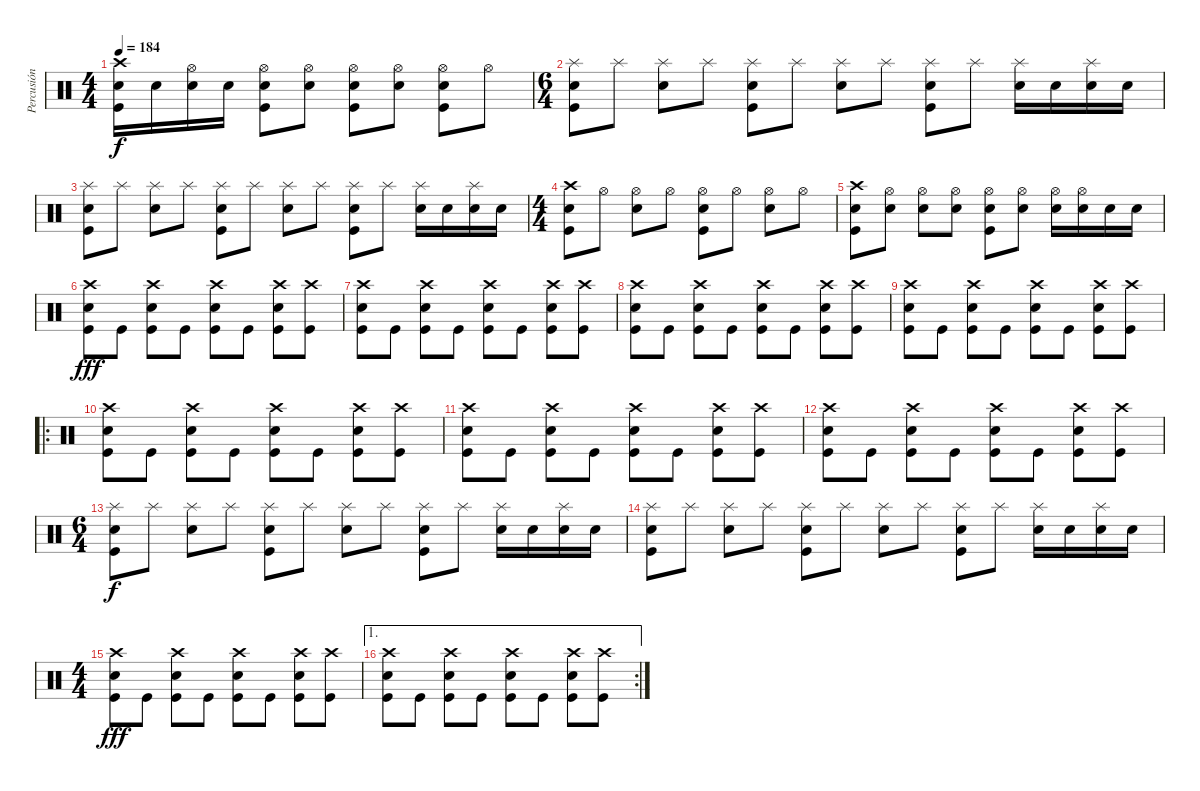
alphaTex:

\track ("Percusión" "Percusión") {instrument percussion}
\staff {score}
\articulation defaults
\ts (4 4)
\tempo 184
\clef neutral
\ks c
("Crash high (hit)" "Electric Snare (hit)" "Kick (hit)").16{dy f} "Electric Snare (hit)".16 ("Hi-Hat (open)" "Electric Snare (hit)").16 "Electric Snare (hit)".16 ("Hi-Hat (open)" "Electric Snare (hit)" "Kick (hit)").8 ("Hi-Hat (open)" "Electric Snare (hit)").8 ("Hi-Hat (open)" "Electric Snare (hit)" "Kick (hit)").8 ("Hi-Hat (open)" "Electric Snare (hit)").8 ("Hi-Hat (open)" "Electric Snare (hit)" "Kick (hit)").8 "Hi-Hat (open)".8 |
\ts (6 4)
("Splash (hit)" "Electric Snare (hit)" "Kick (hit)").8 "Splash (hit)".8 ("Splash (hit)" "Electric Snare (hit)").8 "Splash (hit)".8 ("Splash (hit)" "Electric Snare (hit)" "Kick (hit)").8 "Splash (hit)".8 ("Splash (hit)" "Electric Snare (hit)").8 "Splash (hit)".8 ("Splash (hit)" "Electric Snare (hit)" "Kick (hit)").8 "Splash (hit)".8 ("Splash (hit)" "Electric Snare (hit)").16 "Electric Snare (hit)".16 ("Splash (hit)" "Electric Snare (hit)").16 "Electric Snare (hit)".16 |
("Splash (hit)" "Electric Snare (hit)" "Kick (hit)").8 "Splash (hit)".8 ("Splash (hit)" "Electric Snare (hit)").8 "Splash (hit)".8 ("Splash (hit)" "Electric Snare (hit)" "Kick (hit)").8 "Splash (hit)".8 ("Splash (hit)" "Electric Snare (hit)").8 "Splash (hit)".8 ("Splash (hit)" "Electric Snare (hit)" "Kick (hit)").8 "Splash (hit)".8 ("Splash (hit)" "Electric Snare (hit)").16 "Electric Snare (hit)".16 ("Splash (hit)" "Electric Snare (hit)").16 "Electric Snare (hit)".16 |
\ts (4 4)
("Crash high (hit)" "Electric Snare (hit)" "Kick (hit)").8 "Hi-Hat (open)".8 ("Hi-Hat (open)" "Electric Snare (hit)").8 "Hi-Hat (open)".8 ("Hi-Hat (open)" "Electric Snare (hit)" "Kick (hit)").8 "Hi-Hat (open)".8 ("Hi-Hat (open)" "Electric Snare (hit)").8 "Hi-Hat (open)".8 |
("Crash high (hit)" "Electric Snare (hit)" "Kick (hit)").8 ("Hi-Hat (open)" "Electric Snare (hit)").8 ("Hi-Hat (open)" "Electric Snare (hit)").8 ("Hi-Hat (open)" "Electric Snare (hit)").8 ("Hi-Hat (open)" "Electric Snare (hit)" "Kick (hit)").8 ("Hi-Hat (open)" "Electric Snare (hit)").8 ("Hi-Hat (open)" "Electric Snare (hit)").16 ("Hi-Hat (open)" "Electric Snare (hit)").16 "Electric Snare (hit)".16 "Electric Snare (hit)".16 |
("Crash high (hit)" "Electric Snare (hit)" "Kick (hit)").8{dy fff} "Kick (hit)".8 ("Crash high (hit)" "Electric Snare (hit)" "Kick (hit)").8 "Kick (hit)".8 ("Crash high (hit)" "Electric Snare (hit)" "Kick (hit)").8 "Kick (hit)".8 ("Crash high (hit)" "Electric Snare (hit)" "Kick (hit)").8 ("Crash high (hit)" "Kick (hit)").8 |
("Crash high (hit)" "Electric Snare (hit)" "Kick (hit)").8 "Kick (hit)".8 ("Crash high (hit)" "Electric Snare (hit)" "Kick (hit)").8 "Kick (hit)".8 ("Crash high (hit)" "Electric Snare (hit)" "Kick (hit)").8 "Kick (hit)".8 ("Crash high (hit)" "Electric Snare (hit)" "Kick (hit)").8 ("Crash high (hit)" "Kick (hit)").8 |
("Crash high (hit)" "Electric Snare (hit)" "Kick (hit)").8 "Kick (hit)".8 ("Crash high (hit)" "Electric Snare (hit)" "Kick (hit)").8 "Kick (hit)".8 ("Crash high (hit)" "Electric Snare (hit)" "Kick (hit)").8 "Kick (hit)".8 ("Crash high (hit)" "Electric Snare (hit)" "Kick (hit)").8 ("Crash high (hit)" "Kick (hit)").8 |
("Crash high (hit)" "Electric Snare (hit)" "Kick (hit)").8 "Kick (hit)".8 ("Crash high (hit)" "Electric Snare (hit)" "Kick (hit)").8 "Kick (hit)".8 ("Crash high (hit)" "Electric Snare (hit)" "Kick (hit)").8 "Kick (hit)".8 ("Crash high (hit)" "Electric Snare (hit)" "Kick (hit)").8 ("Crash high (hit)" "Kick (hit)").8 |
\ro
("Crash high (hit)" "Electric Snare (hit)" "Kick (hit)").8 "Kick (hit)".8 ("Crash high (hit)" "Electric Snare (hit)" "Kick (hit)").8 "Kick (hit)".8 ("Crash high (hit)" "Electric Snare (hit)" "Kick (hit)").8 "Kick (hit)".8 ("Crash high (hit)" "Electric Snare (hit)" "Kick (hit)").8 ("Crash high (hit)" "Kick (hit)").8 |
("Crash high (hit)" "Electric Snare (hit)" "Kick (hit)").8 "Kick (hit)".8 ("Crash high (hit)" "Electric Snare (hit)" "Kick (hit)").8 "Kick (hit)".8 ("Crash high (hit)" "Electric Snare (hit)" "Kick (hit)").8 "Kick (hit)".8 ("Crash high (hit)" "Electric Snare (hit)" "Kick (hit)").8 ("Crash high (hit)" "Kick (hit)").8 |
("Crash high (hit)" "Electric Snare (hit)" "Kick (hit)").8 "Kick (hit)".8 ("Crash high (hit)" "Electric Snare (hit)" "Kick (hit)").8 "Kick (hit)".8 ("Crash high (hit)" "Electric Snare (hit)" "Kick (hit)").8 "Kick (hit)".8 ("Crash high (hit)" "Electric Snare (hit)" "Kick (hit)").8 ("Crash high (hit)" "Kick (hit)").8 |
\ts (6 4)
("Splash (hit)" "Electric Snare (hit)" "Kick (hit)").8{dy f} "Splash (hit)".8 ("Splash (hit)" "Electric Snare (hit)").8 "Splash (hit)".8 ("Splash (hit)" "Electric Snare (hit)" "Kick (hit)").8 "Splash (hit)".8 ("Splash (hit)" "Electric Snare (hit)").8 "Splash (hit)".8 ("Splash (hit)" "Electric Snare (hit)" "Kick (hit)").8 "Splash (hit)".8 ("Splash (hit)" "Electric Snare (hit)").16 "Electric Snare (hit)".16 ("Splash (hit)" "Electric Snare (hit)").16 "Electric Snare (hit)".16 |
("Splash (hit)" "Electric Snare (hit)" "Kick (hit)").8 "Splash (hit)".8 ("Splash (hit)" "Electric Snare (hit)").8 "Splash (hit)".8 ("Splash (hit)" "Electric Snare (hit)" "Kick (hit)").8 "Splash (hit)".8 ("Splash (hit)" "Electric Snare (hit)").8 "Splash (hit)".8 ("Splash (hit)" "Electric Snare (hit)" "Kick (hit)").8 "Splash (hit)".8 ("Splash (hit)" "Electric Snare (hit)").16 "Electric Snare (hit)".16 ("Splash (hit)" "Electric Snare (hit)").16 "Electric Snare (hit)".16 |
\ts (4 4)
("Crash high (hit)" "Electric Snare (hit)" "Kick (hit)").8{dy fff} "Kick (hit)".8 ("Crash high (hit)" "Electric Snare (hit)" "Kick (hit)").8 "Kick (hit)".8 ("Crash high (hit)" "Electric Snare (hit)" "Kick (hit)").8 "Kick (hit)".8 ("Crash high (hit)" "Electric Snare (hit)" "Kick (hit)").8 ("Crash high (hit)" "Kick (hit)").8 |
\ae 1
\rc 2
("Crash high (hit)" "Electric Snare (hit)" "Kick (hit)").8 "Kick (hit)".8 ("Crash high (hit)" "Electric Snare (hit)" "Kick (hit)").8 "Kick (hit)".8 ("Crash high (hit)" "Electric Snare (hit)" "Kick (hit)").8 "Kick (hit)".8 ("Crash high (hit)" "Electric Snare (hit)" "Kick (hit)").8 ("Crash high (hit)" "Kick (hit)").8
